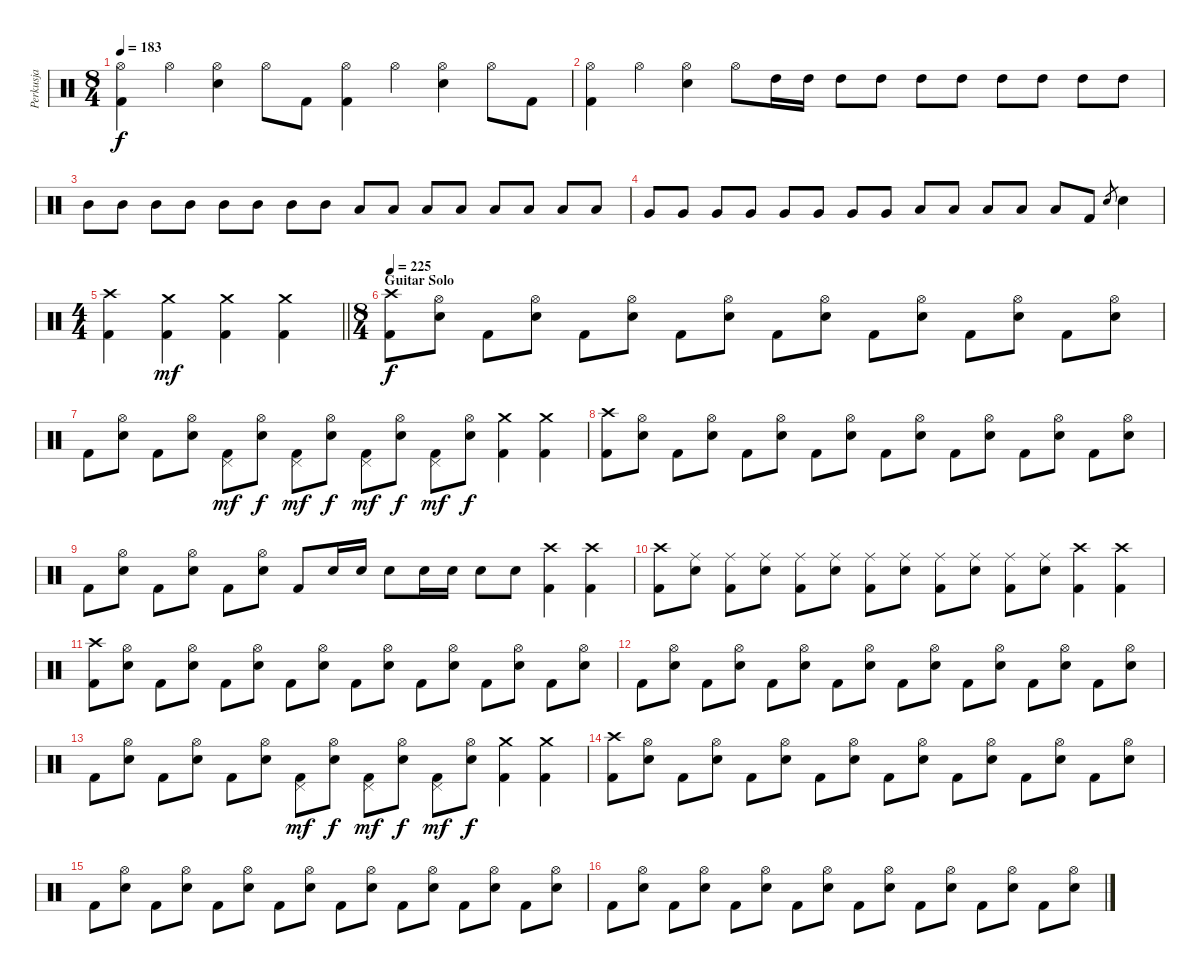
\track ("Perkusja" "Perkusja") {instrument percussion}
\staff {score}
\articulation defaults
\ts (8 4)
\tempo 183
\clef neutral
\ks c
("Hi-Hat (open)" "Kick (hit) 2").4{dy f} "Hi-Hat (open)".4 ("Hi-Hat (open)" "Snare (hit) 2").4 "Hi-Hat (open)".8 "Kick (hit) 2".8 ("Hi-Hat (open)" "Kick (hit) 2").4 "Hi-Hat (open)".4 ("Hi-Hat (open)" "Snare (hit) 2").4 "Hi-Hat (open)".8 "Kick (hit) 2".8 |
("Hi-Hat (open)" "Kick (hit) 2").4 "Hi-Hat (open)".4 ("Hi-Hat (open)" "Snare (hit) 2").4 "Hi-Hat (open)".8 "High Tom (hit)".16 "High Tom (hit)".16 "High Tom (hit)".8 "High Tom (hit)".8 "High Tom (hit)".8 "High Tom (hit)".8 "High Tom (hit)".8 "High Tom (hit)".8 "High Tom (hit)".8 "High Tom (hit)".8 |
"Mid Tom (hit)".8 "Mid Tom (hit)".8 "Mid Tom (hit)".8 "Mid Tom (hit)".8 "Mid Tom (hit)".8 "Mid Tom (hit)".8 "Mid Tom (hit)".8 "Mid Tom (hit)".8 "Low Tom (hit)".8 "Low Tom (hit)".8 "Low Tom (hit)".8 "Low Tom (hit)".8 "Low Tom (hit)".8 "Low Tom (hit)".8 "Low Tom (hit)".8 "Low Tom (hit)".8 |
"Very Low Tom (hit)".8 "Very Low Tom (hit)".8 "Very Low Tom (hit)".8 "Very Low Tom (hit)".8 "Very Low Tom (hit)".8 "Very Low Tom (hit)".8 "Very Low Tom (hit)".8 "Very Low Tom (hit)".8 "Low Floor Tom (hit)".8 "Low Floor Tom (hit)".8 "Low Floor Tom (hit)".8 "Low Floor Tom (hit)".8 "Low Floor Tom (hit)".8 "Kick (hit) 2".8 "Snare (hit) 2".8{gr} "Snare (hit) 2".4 |
\ts (4 4)
\barLineRight lightlight
("Crash high (hit)" "Kick (hit) 2").4 ("Crash medium (hit)" "Kick (hit) 2").4{dy mf} ("Crash medium (hit)" "Kick (hit) 2").4 ("Crash medium (hit)" "Kick (hit) 2").4 |
\ts (8 4)
\section ("" "Guitar Solo")
\tempo 225
("Crash high (hit)" "Kick (hit) 2").8{dy f} ("Hi-Hat (open)" "Snare (hit) 2").8 "Kick (hit) 2".8 ("Hi-Hat (open)" "Snare (hit) 2").8 "Kick (hit) 2".8 ("Hi-Hat (open)" "Snare (hit) 2").8 "Kick (hit) 2".8 ("Hi-Hat (open)" "Snare (hit) 2").8 "Kick (hit) 2".8 ("Hi-Hat (open)" "Snare (hit) 2").8 "Kick (hit) 2".8 ("Hi-Hat (open)" "Snare (hit) 2").8 "Kick (hit) 2".8 ("Hi-Hat (open)" "Snare (hit) 2").8 "Kick (hit) 2".8 ("Hi-Hat (open)" "Snare (hit) 2").8 |
"Kick (hit) 2".8 ("Hi-Hat (open)" "Snare (hit) 2").8 "Kick (hit) 2".8 ("Hi-Hat (open)" "Snare (hit) 2").8 ("Pedal Hi-Hat (hit)" "Kick (hit) 2").8{dy mf} ("Hi-Hat (open)" "Snare (hit) 2").8{dy f} ("Pedal Hi-Hat (hit)" "Kick (hit) 2").8{dy mf} ("Hi-Hat (open)" "Snare (hit) 2").8{dy f} ("Pedal Hi-Hat (hit)" "Kick (hit) 2").8{dy mf} ("Hi-Hat (open)" "Snare (hit) 2").8{dy f} ("Pedal Hi-Hat (hit)" "Kick (hit) 2").8{dy mf} ("Hi-Hat (open)" "Snare (hit) 2").8{dy f} ("Crash medium (hit)" "Kick (hit) 2").4 ("Crash medium (hit)" "Kick (hit) 2").4 |
("Crash high (hit)" "Kick (hit) 2").8 ("Hi-Hat (open)" "Snare (hit) 2").8 "Kick (hit) 2".8 ("Hi-Hat (open)" "Snare (hit) 2").8 "Kick (hit) 2".8 ("Hi-Hat (open)" "Snare (hit) 2").8 "Kick (hit) 2".8 ("Hi-Hat (open)" "Snare (hit) 2").8 "Kick (hit) 2".8 ("Hi-Hat (open)" "Snare (hit) 2").8 "Kick (hit) 2".8 ("Hi-Hat (open)" "Snare (hit) 2").8 "Kick (hit) 2".8 ("Hi-Hat (open)" "Snare (hit) 2").8 "Kick (hit) 2".8 ("Hi-Hat (open)" "Snare (hit) 2").8 |
"Kick (hit) 2".8 ("Hi-Hat (open)" "Snare (hit) 2").8 "Kick (hit) 2".8 ("Hi-Hat (open)" "Snare (hit) 2").8 "Kick (hit) 2".8 ("Hi-Hat (open)" "Snare (hit) 2").8 "Kick (hit) 2".8 "Snare (hit) 2".16 "Snare (hit) 2".16 "Snare (hit) 2".8 "Snare (hit) 2".16 "Snare (hit) 2".16 "Snare (hit) 2".8 "Snare (hit) 2".8 ("Crash high (hit)" "Kick (hit) 2").4 ("Crash high (hit)" "Kick (hit) 2").4 |
("Crash high (hit)" "Kick (hit) 2").8 ("Ride (middle)" "Snare (hit) 2").8 ("Ride (middle)" "Kick (hit) 2").8 ("Ride (middle)" "Snare (hit) 2").8 ("Ride (middle)" "Kick (hit) 2").8 ("Ride (middle)" "Snare (hit) 2").8 ("Ride (middle)" "Kick (hit) 2").8 ("Ride (middle)" "Snare (hit) 2").8 ("Ride (middle)" "Kick (hit) 2").8 ("Ride (middle)" "Snare (hit) 2").8 ("Ride (middle)" "Kick (hit) 2").8 ("Ride (middle)" "Snare (hit) 2").8 ("Crash high (hit)" "Kick (hit) 2").4 ("Crash high (hit)" "Kick (hit) 2").4 |
("Crash high (hit)" "Kick (hit) 2").8 ("Hi-Hat (open)" "Snare (hit) 2").8 "Kick (hit) 2".8 ("Hi-Hat (open)" "Snare (hit) 2").8 "Kick (hit) 2".8 ("Hi-Hat (open)" "Snare (hit) 2").8 "Kick (hit) 2".8 ("Hi-Hat (open)" "Snare (hit) 2").8 "Kick (hit) 2".8 ("Hi-Hat (open)" "Snare (hit) 2").8 "Kick (hit) 2".8 ("Hi-Hat (open)" "Snare (hit) 2").8 "Kick (hit) 2".8 ("Hi-Hat (open)" "Snare (hit) 2").8 "Kick (hit) 2".8 ("Hi-Hat (open)" "Snare (hit) 2").8 |
"Kick (hit) 2".8 ("Hi-Hat (open)" "Snare (hit) 2").8 "Kick (hit) 2".8 ("Hi-Hat (open)" "Snare (hit) 2").8 "Kick (hit) 2".8 ("Hi-Hat (open)" "Snare (hit) 2").8 "Kick (hit) 2".8 ("Hi-Hat (open)" "Snare (hit) 2").8 "Kick (hit) 2".8 ("Hi-Hat (open)" "Snare (hit) 2").8 "Kick (hit) 2".8 ("Hi-Hat (open)" "Snare (hit) 2").8 "Kick (hit) 2".8 ("Hi-Hat (open)" "Snare (hit) 2").8 "Kick (hit) 2".8 ("Hi-Hat (open)" "Snare (hit) 2").8 |
"Kick (hit) 2".8 ("Hi-Hat (open)" "Snare (hit) 2").8 "Kick (hit) 2".8 ("Hi-Hat (open)" "Snare (hit) 2").8 "Kick (hit) 2".8 ("Hi-Hat (open)" "Snare (hit) 2").8 ("Pedal Hi-Hat (hit)" "Kick (hit) 2").8{dy mf} ("Hi-Hat (open)" "Snare (hit) 2").8{dy f} ("Pedal Hi-Hat (hit)" "Kick (hit) 2").8{dy mf} ("Hi-Hat (open)" "Snare (hit) 2").8{dy f} ("Pedal Hi-Hat (hit)" "Kick (hit) 2").8{dy mf} ("Hi-Hat (open)" "Snare (hit) 2").8{dy f} ("Crash medium (hit)" "Kick (hit) 2").4 ("Crash medium (hit)" "Kick (hit) 2").4 |
("Crash high (hit)" "Kick (hit) 2").8 ("Hi-Hat (open)" "Snare (hit) 2").8 "Kick (hit) 2".8 ("Hi-Hat (open)" "Snare (hit) 2").8 "Kick (hit) 2".8 ("Hi-Hat (open)" "Snare (hit) 2").8 "Kick (hit) 2".8 ("Hi-Hat (open)" "Snare (hit) 2").8 "Kick (hit) 2".8 ("Hi-Hat (open)" "Snare (hit) 2").8 "Kick (hit) 2".8 ("Hi-Hat (open)" "Snare (hit) 2").8 "Kick (hit) 2".8 ("Hi-Hat (open)" "Snare (hit) 2").8 "Kick (hit) 2".8 ("Hi-Hat (open)" "Snare (hit) 2").8 |
"Kick (hit) 2".8 ("Hi-Hat (open)" "Snare (hit) 2").8 "Kick (hit) 2".8 ("Hi-Hat (open)" "Snare (hit) 2").8 "Kick (hit) 2".8 ("Hi-Hat (open)" "Snare (hit) 2").8 "Kick (hit) 2".8 ("Hi-Hat (open)" "Snare (hit) 2").8 "Kick (hit) 2".8 ("Hi-Hat (open)" "Snare (hit) 2").8 "Kick (hit) 2".8 ("Hi-Hat (open)" "Snare (hit) 2").8 "Kick (hit) 2".8 ("Hi-Hat (open)" "Snare (hit) 2").8 "Kick (hit) 2".8 ("Hi-Hat (open)" "Snare (hit) 2").8 |
"Kick (hit) 2".8 ("Hi-Hat (open)" "Snare (hit) 2").8 "Kick (hit) 2".8 ("Hi-Hat (open)" "Snare (hit) 2").8 "Kick (hit) 2".8 ("Hi-Hat (open)" "Snare (hit) 2").8 "Kick (hit) 2".8 ("Hi-Hat (open)" "Snare (hit) 2").8 "Kick (hit) 2".8 ("Hi-Hat (open)" "Snare (hit) 2").8 "Kick (hit) 2".8 ("Hi-Hat (open)" "Snare (hit) 2").8 "Kick (hit) 2".8 ("Hi-Hat (open)" "Snare (hit) 2").8 "Kick (hit) 2".8 ("Hi-Hat (open)" "Snare (hit) 2").8
